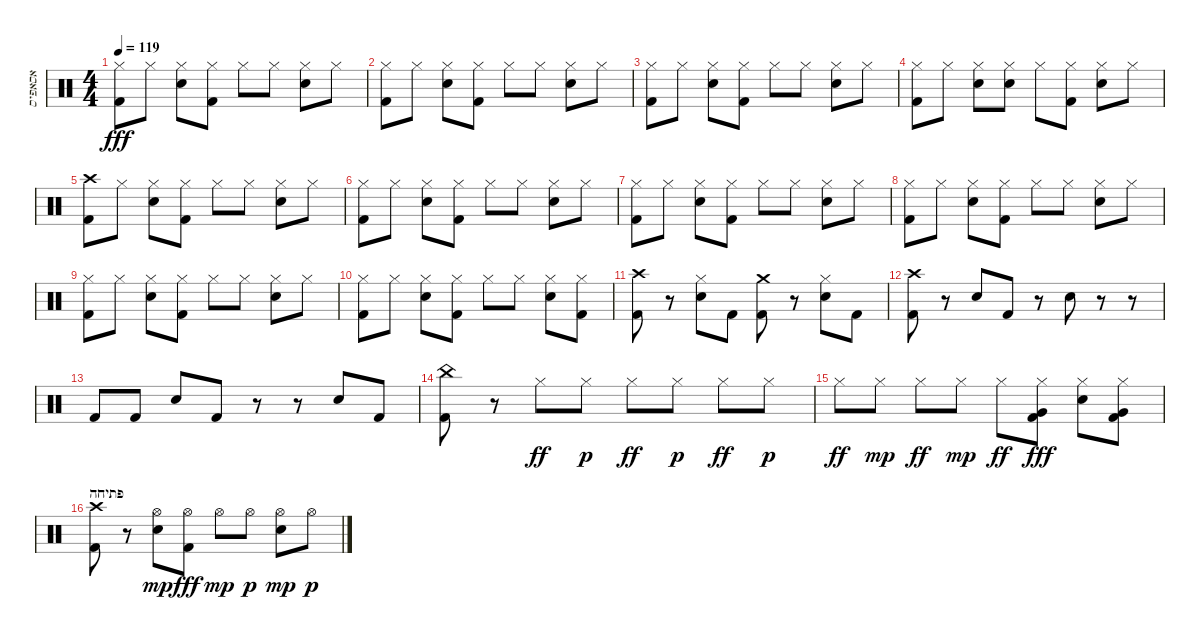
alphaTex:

\track ("אסאפיס" "אסאפיס") {instrument percussion}
\staff {score}
\articulation defaults
\ts (4 4)
\tempo 119
\clef neutral
\ks c
("Hi-Hat (closed)" "Kick (hit) 2").8{dy fff} "Hi-Hat (closed)".8 ("Hi-Hat (closed)" "Snare (hit) 2").8 ("Hi-Hat (closed)" "Kick (hit) 2").8 "Hi-Hat (closed)".8 "Hi-Hat (closed)".8 ("Hi-Hat (closed)" "Snare (hit) 2").8 "Hi-Hat (closed)".8 |
("Hi-Hat (closed)" "Kick (hit) 2").8 "Hi-Hat (closed)".8 ("Hi-Hat (closed)" "Snare (hit) 2").8 ("Hi-Hat (closed)" "Kick (hit) 2").8 "Hi-Hat (closed)".8 "Hi-Hat (closed)".8 ("Hi-Hat (closed)" "Snare (hit) 2").8 "Hi-Hat (closed)".8 |
("Hi-Hat (closed)" "Kick (hit) 2").8 "Hi-Hat (closed)".8 ("Hi-Hat (closed)" "Snare (hit) 2").8 ("Hi-Hat (closed)" "Kick (hit) 2").8 "Hi-Hat (closed)".8 "Hi-Hat (closed)".8 ("Hi-Hat (closed)" "Snare (hit) 2").8 "Hi-Hat (closed)".8 |
("Hi-Hat (closed)" "Kick (hit) 2").8 "Hi-Hat (closed)".8 ("Hi-Hat (closed)" "Snare (hit) 2").8 ("Hi-Hat (closed)" "Snare (hit) 2").8 "Hi-Hat (closed)".8 ("Hi-Hat (closed)" "Kick (hit) 2").8 ("Hi-Hat (closed)" "Snare (hit) 2").8 "Hi-Hat (closed)".8 |
("Crash high (hit)" "Kick (hit) 2").8 "Hi-Hat (closed)".8 ("Hi-Hat (closed)" "Snare (hit) 2").8 ("Hi-Hat (closed)" "Kick (hit) 2").8 "Hi-Hat (closed)".8 "Hi-Hat (closed)".8 ("Hi-Hat (closed)" "Snare (hit) 2").8 "Hi-Hat (closed)".8 |
("Hi-Hat (closed)" "Kick (hit) 2").8 "Hi-Hat (closed)".8 ("Hi-Hat (closed)" "Snare (hit) 2").8 ("Hi-Hat (closed)" "Kick (hit) 2").8 "Hi-Hat (closed)".8 "Hi-Hat (closed)".8 ("Hi-Hat (closed)" "Snare (hit) 2").8 "Hi-Hat (closed)".8 |
("Hi-Hat (closed)" "Kick (hit) 2").8 "Hi-Hat (closed)".8 ("Hi-Hat (closed)" "Snare (hit) 2").8 ("Hi-Hat (closed)" "Kick (hit) 2").8 "Hi-Hat (closed)".8 "Hi-Hat (closed)".8 ("Hi-Hat (closed)" "Snare (hit) 2").8 "Hi-Hat (closed)".8 |
("Hi-Hat (closed)" "Kick (hit) 2").8 "Hi-Hat (closed)".8 ("Hi-Hat (closed)" "Snare (hit) 2").8 ("Hi-Hat (closed)" "Kick (hit) 2").8 "Hi-Hat (closed)".8 "Hi-Hat (closed)".8 ("Hi-Hat (closed)" "Snare (hit) 2").8 "Hi-Hat (closed)".8 |
("Hi-Hat (closed)" "Kick (hit) 2").8 "Hi-Hat (closed)".8 ("Hi-Hat (closed)" "Snare (hit) 2").8 ("Hi-Hat (closed)" "Kick (hit) 2").8 "Hi-Hat (closed)".8 "Hi-Hat (closed)".8 ("Hi-Hat (closed)" "Snare (hit) 2").8 "Hi-Hat (closed)".8 |
("Hi-Hat (closed)" "Kick (hit) 2").8 "Hi-Hat (closed)".8 ("Hi-Hat (closed)" "Snare (hit) 2").8 ("Hi-Hat (closed)" "Kick (hit) 2").8 "Hi-Hat (closed)".8 "Hi-Hat (closed)".8 ("Hi-Hat (closed)" "Snare (hit) 2").8 ("Hi-Hat (closed)" "Kick (hit) 2").8 |
("Crash high (hit)" "Kick (hit) 2").8 r.8 ("Hi-Hat (closed)" "Snare (hit) 2").8 "Kick (hit) 2".8 ("Crash medium (hit)" "Kick (hit) 2").8 r.8 ("Hi-Hat (closed)" "Snare (hit) 2").8 "Kick (hit) 2".8 |
("Crash high (hit)" "Kick (hit) 2").8 r.8 "Snare (hit) 2".8 "Kick (hit) 2".8 r.8 "Snare (hit) 2".8 r.8 r.8 |
"Kick (hit) 2".8 "Kick (hit) 2".8 "Snare (hit) 2".8 "Kick (hit) 2".8 r.8 r.8 "Snare (hit) 2".8 "Kick (hit) 2".8 |
("China (hit)" "Kick (hit) 2").8 r.8 "Hi-Hat (closed)".8{dy ff} "Hi-Hat (closed)".8{dy p} "Hi-Hat (closed)".8{dy ff} "Hi-Hat (closed)".8{dy p} "Hi-Hat (closed)".8{dy ff} "Hi-Hat (closed)".8{dy p} |
"Hi-Hat (closed)".8{dy ff} "Hi-Hat (closed)".8{dy mp} "Hi-Hat (closed)".8{dy ff} "Hi-Hat (closed)".8{dy mp} "Hi-Hat (closed)".8{dy ff} ("Hi-Hat (closed)" "Very Low Tom (hit)" "Kick (hit) 2").8{dy fff} ("Hi-Hat (closed)" "Snare (hit) 2").8 ("Hi-Hat (closed)" "Very Low Tom (hit)" "Kick (hit) 2").8 |
\section ("" "פתיחה")
("Crash high (hit)" "Kick (hit) 2").8 r.8 ("Hi-Hat (open)" "Snare (hit) 2").8{dy mp} ("Hi-Hat (open)" "Kick (hit) 2").8{dy fff} "Hi-Hat (open)".8{dy mp} "Hi-Hat (open)".8{dy p} ("Hi-Hat (open)" "Snare (hit) 2").8{dy mp} "Hi-Hat (open)".8{dy p}
